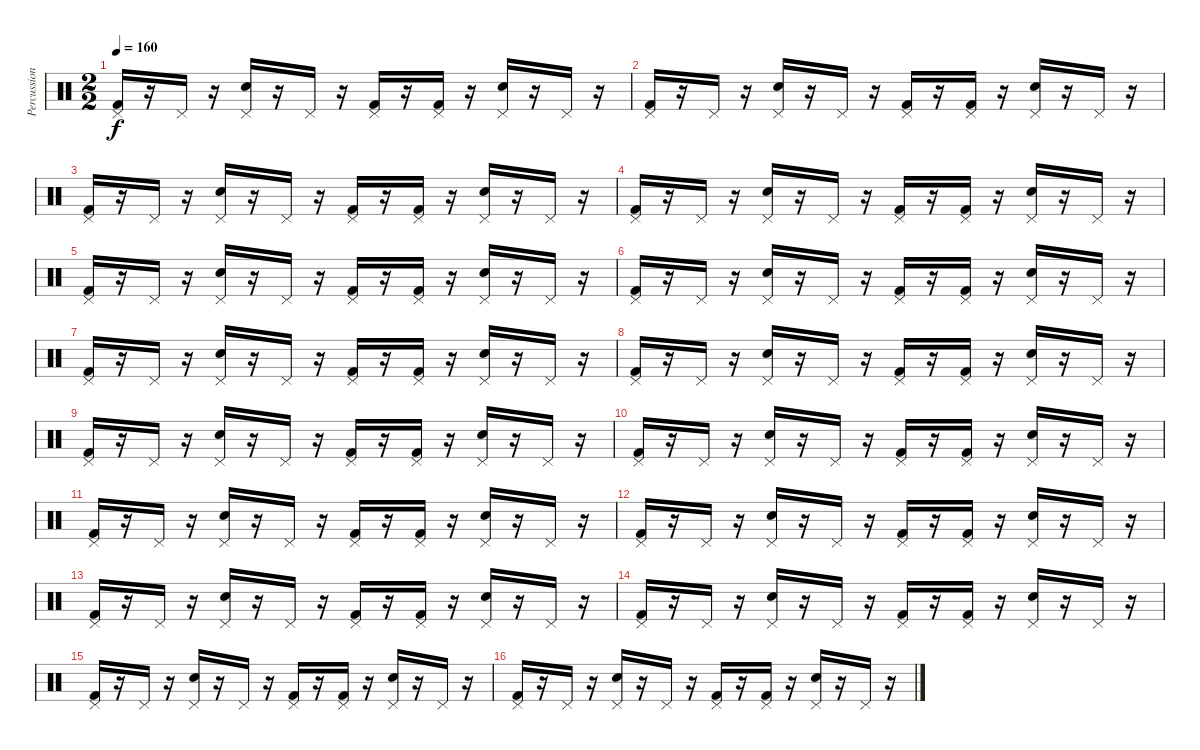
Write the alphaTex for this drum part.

\track ("Percussion" "Percussion") {instrument percussion}
\staff {score}
\articulation defaults
\ts (2 2)
\tempo 160
\clef neutral
\ks c
("Pedal Hi-Hat (hit)" "Kick (hit) 2").16{dy f} r.16 "Pedal Hi-Hat (hit)".16 r.16 ("Pedal Hi-Hat (hit)" "Snare (hit) 2").16 r.16 "Pedal Hi-Hat (hit)".16 r.16 ("Pedal Hi-Hat (hit)" "Kick (hit) 2").16 r.16 ("Pedal Hi-Hat (hit)" "Kick (hit) 2").16 r.16 ("Pedal Hi-Hat (hit)" "Snare (hit) 2").16 r.16 "Pedal Hi-Hat (hit)".16 r.16 |
("Pedal Hi-Hat (hit)" "Kick (hit) 2").16 r.16 "Pedal Hi-Hat (hit)".16 r.16 ("Pedal Hi-Hat (hit)" "Snare (hit) 2").16 r.16 "Pedal Hi-Hat (hit)".16 r.16 ("Pedal Hi-Hat (hit)" "Kick (hit) 2").16 r.16 ("Pedal Hi-Hat (hit)" "Kick (hit) 2").16 r.16 ("Pedal Hi-Hat (hit)" "Snare (hit) 2").16 r.16 "Pedal Hi-Hat (hit)".16 r.16 |
("Pedal Hi-Hat (hit)" "Kick (hit) 2").16 r.16 "Pedal Hi-Hat (hit)".16 r.16 ("Pedal Hi-Hat (hit)" "Snare (hit) 2").16 r.16 "Pedal Hi-Hat (hit)".16 r.16 ("Pedal Hi-Hat (hit)" "Kick (hit) 2").16 r.16 ("Pedal Hi-Hat (hit)" "Kick (hit) 2").16 r.16 ("Pedal Hi-Hat (hit)" "Snare (hit) 2").16 r.16 "Pedal Hi-Hat (hit)".16 r.16 |
("Pedal Hi-Hat (hit)" "Kick (hit) 2").16 r.16 "Pedal Hi-Hat (hit)".16 r.16 ("Pedal Hi-Hat (hit)" "Snare (hit) 2").16 r.16 "Pedal Hi-Hat (hit)".16 r.16 ("Pedal Hi-Hat (hit)" "Kick (hit) 2").16 r.16 ("Pedal Hi-Hat (hit)" "Kick (hit) 2").16 r.16 ("Pedal Hi-Hat (hit)" "Snare (hit) 2").16 r.16 "Pedal Hi-Hat (hit)".16 r.16 |
("Pedal Hi-Hat (hit)" "Kick (hit) 2").16 r.16 "Pedal Hi-Hat (hit)".16 r.16 ("Pedal Hi-Hat (hit)" "Snare (hit) 2").16 r.16 "Pedal Hi-Hat (hit)".16 r.16 ("Pedal Hi-Hat (hit)" "Kick (hit) 2").16 r.16 ("Pedal Hi-Hat (hit)" "Kick (hit) 2").16 r.16 ("Pedal Hi-Hat (hit)" "Snare (hit) 2").16 r.16 "Pedal Hi-Hat (hit)".16 r.16 |
("Pedal Hi-Hat (hit)" "Kick (hit) 2").16 r.16 "Pedal Hi-Hat (hit)".16 r.16 ("Pedal Hi-Hat (hit)" "Snare (hit) 2").16 r.16 "Pedal Hi-Hat (hit)".16 r.16 ("Pedal Hi-Hat (hit)" "Kick (hit) 2").16 r.16 ("Pedal Hi-Hat (hit)" "Kick (hit) 2").16 r.16 ("Pedal Hi-Hat (hit)" "Snare (hit) 2").16 r.16 "Pedal Hi-Hat (hit)".16 r.16 |
("Pedal Hi-Hat (hit)" "Kick (hit) 2").16 r.16 "Pedal Hi-Hat (hit)".16 r.16 ("Pedal Hi-Hat (hit)" "Snare (hit) 2").16 r.16 "Pedal Hi-Hat (hit)".16 r.16 ("Pedal Hi-Hat (hit)" "Kick (hit) 2").16 r.16 ("Pedal Hi-Hat (hit)" "Kick (hit) 2").16 r.16 ("Pedal Hi-Hat (hit)" "Snare (hit) 2").16 r.16 "Pedal Hi-Hat (hit)".16 r.16 |
("Pedal Hi-Hat (hit)" "Kick (hit) 2").16 r.16 "Pedal Hi-Hat (hit)".16 r.16 ("Pedal Hi-Hat (hit)" "Snare (hit) 2").16 r.16 "Pedal Hi-Hat (hit)".16 r.16 ("Pedal Hi-Hat (hit)" "Kick (hit) 2").16 r.16 ("Pedal Hi-Hat (hit)" "Kick (hit) 2").16 r.16 ("Pedal Hi-Hat (hit)" "Snare (hit) 2").16 r.16 "Pedal Hi-Hat (hit)".16 r.16 |
("Pedal Hi-Hat (hit)" "Kick (hit) 2").16 r.16 "Pedal Hi-Hat (hit)".16 r.16 ("Pedal Hi-Hat (hit)" "Snare (hit) 2").16 r.16 "Pedal Hi-Hat (hit)".16 r.16 ("Pedal Hi-Hat (hit)" "Kick (hit) 2").16 r.16 ("Pedal Hi-Hat (hit)" "Kick (hit) 2").16 r.16 ("Pedal Hi-Hat (hit)" "Snare (hit) 2").16 r.16 "Pedal Hi-Hat (hit)".16 r.16 |
("Pedal Hi-Hat (hit)" "Kick (hit) 2").16 r.16 "Pedal Hi-Hat (hit)".16 r.16 ("Pedal Hi-Hat (hit)" "Snare (hit) 2").16 r.16 "Pedal Hi-Hat (hit)".16 r.16 ("Pedal Hi-Hat (hit)" "Kick (hit) 2").16 r.16 ("Pedal Hi-Hat (hit)" "Kick (hit) 2").16 r.16 ("Pedal Hi-Hat (hit)" "Snare (hit) 2").16 r.16 "Pedal Hi-Hat (hit)".16 r.16 |
("Pedal Hi-Hat (hit)" "Kick (hit) 2").16 r.16 "Pedal Hi-Hat (hit)".16 r.16 ("Pedal Hi-Hat (hit)" "Snare (hit) 2").16 r.16 "Pedal Hi-Hat (hit)".16 r.16 ("Pedal Hi-Hat (hit)" "Kick (hit) 2").16 r.16 ("Pedal Hi-Hat (hit)" "Kick (hit) 2").16 r.16 ("Pedal Hi-Hat (hit)" "Snare (hit) 2").16 r.16 "Pedal Hi-Hat (hit)".16 r.16 |
("Pedal Hi-Hat (hit)" "Kick (hit) 2").16 r.16 "Pedal Hi-Hat (hit)".16 r.16 ("Pedal Hi-Hat (hit)" "Snare (hit) 2").16 r.16 "Pedal Hi-Hat (hit)".16 r.16 ("Pedal Hi-Hat (hit)" "Kick (hit) 2").16 r.16 ("Pedal Hi-Hat (hit)" "Kick (hit) 2").16 r.16 ("Pedal Hi-Hat (hit)" "Snare (hit) 2").16 r.16 "Pedal Hi-Hat (hit)".16 r.16 |
("Pedal Hi-Hat (hit)" "Kick (hit) 2").16 r.16 "Pedal Hi-Hat (hit)".16 r.16 ("Pedal Hi-Hat (hit)" "Snare (hit) 2").16 r.16 "Pedal Hi-Hat (hit)".16 r.16 ("Pedal Hi-Hat (hit)" "Kick (hit) 2").16 r.16 ("Pedal Hi-Hat (hit)" "Kick (hit) 2").16 r.16 ("Pedal Hi-Hat (hit)" "Snare (hit) 2").16 r.16 "Pedal Hi-Hat (hit)".16 r.16 |
("Pedal Hi-Hat (hit)" "Kick (hit) 2").16 r.16 "Pedal Hi-Hat (hit)".16 r.16 ("Pedal Hi-Hat (hit)" "Snare (hit) 2").16 r.16 "Pedal Hi-Hat (hit)".16 r.16 ("Pedal Hi-Hat (hit)" "Kick (hit) 2").16 r.16 ("Pedal Hi-Hat (hit)" "Kick (hit) 2").16 r.16 ("Pedal Hi-Hat (hit)" "Snare (hit) 2").16 r.16 "Pedal Hi-Hat (hit)".16 r.16 |
("Pedal Hi-Hat (hit)" "Kick (hit) 2").16 r.16 "Pedal Hi-Hat (hit)".16 r.16 ("Pedal Hi-Hat (hit)" "Snare (hit) 2").16 r.16 "Pedal Hi-Hat (hit)".16 r.16 ("Pedal Hi-Hat (hit)" "Kick (hit) 2").16 r.16 ("Pedal Hi-Hat (hit)" "Kick (hit) 2").16 r.16 ("Pedal Hi-Hat (hit)" "Snare (hit) 2").16 r.16 "Pedal Hi-Hat (hit)".16 r.16 |
("Pedal Hi-Hat (hit)" "Kick (hit) 2").16 r.16 "Pedal Hi-Hat (hit)".16 r.16 ("Pedal Hi-Hat (hit)" "Snare (hit) 2").16 r.16 "Pedal Hi-Hat (hit)".16 r.16 ("Pedal Hi-Hat (hit)" "Kick (hit) 2").16 r.16 ("Pedal Hi-Hat (hit)" "Kick (hit) 2").16 r.16 ("Pedal Hi-Hat (hit)" "Snare (hit) 2").16 r.16 "Pedal Hi-Hat (hit)".16 r.16
